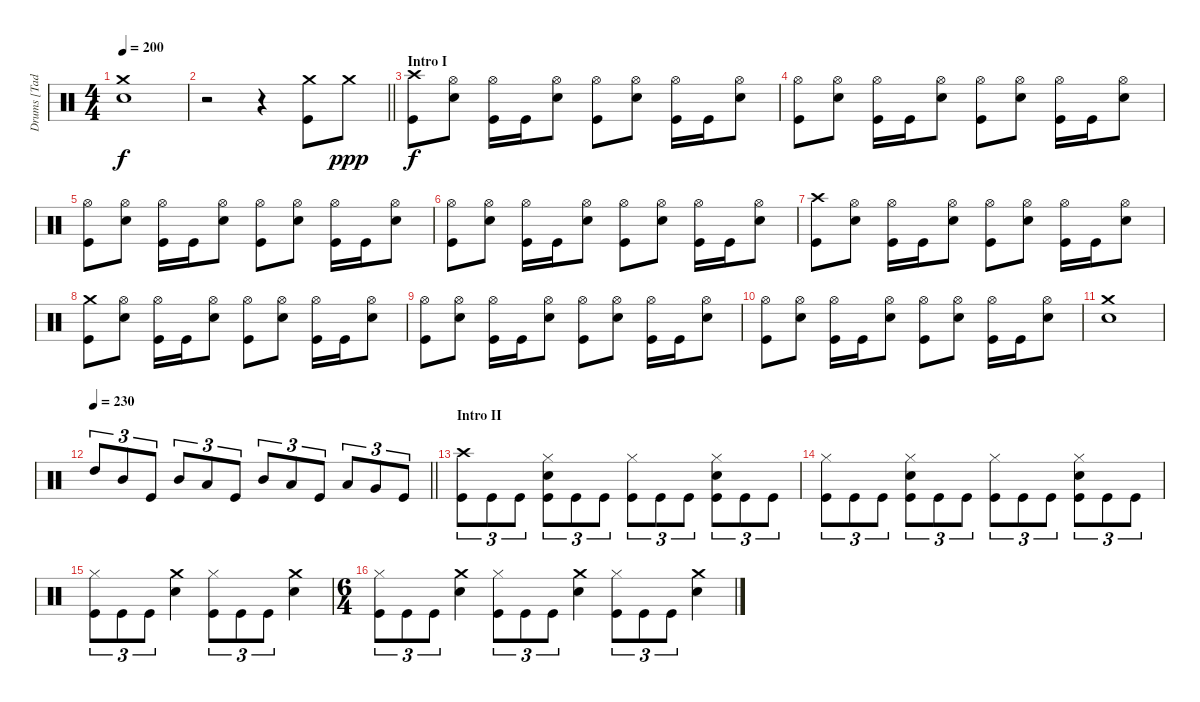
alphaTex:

\track ("Drums [Tad Leger]" "Drums [Tad") {instrument percussion}
\staff {score}
\articulation defaults
\ts (4 4)
\tempo 200
\clef neutral
\ks c
("Crash medium (hit)" "Electric Snare (hit)").1{dy f} |
\barLineRight lightlight
r.2 r.4 ("Crash medium (hit)" "Kick (hit)").8 "Crash medium (hit)".8{dy ppp} |
\section ("" "Intro I")
("Crash high (hit)" "Kick (hit)").8{dy f} ("Hi-Hat (open)" "Electric Snare (hit)").8 ("Hi-Hat (open)" "Kick (hit)").16 "Kick (hit)".16 ("Hi-Hat (open)" "Electric Snare (hit)").8 ("Hi-Hat (open)" "Kick (hit)").8 ("Hi-Hat (open)" "Electric Snare (hit)").8 ("Hi-Hat (open)" "Kick (hit)").16 "Kick (hit)".16 ("Hi-Hat (open)" "Electric Snare (hit)").8 |
("Hi-Hat (open)" "Kick (hit)").8 ("Hi-Hat (open)" "Electric Snare (hit)").8 ("Hi-Hat (open)" "Kick (hit)").16 "Kick (hit)".16 ("Hi-Hat (open)" "Electric Snare (hit)").8 ("Hi-Hat (open)" "Kick (hit)").8 ("Hi-Hat (open)" "Electric Snare (hit)").8 ("Hi-Hat (open)" "Kick (hit)").16 "Kick (hit)".16 ("Hi-Hat (open)" "Electric Snare (hit)").8 |
("Hi-Hat (open)" "Kick (hit)").8 ("Hi-Hat (open)" "Electric Snare (hit)").8 ("Hi-Hat (open)" "Kick (hit)").16 "Kick (hit)".16 ("Hi-Hat (open)" "Electric Snare (hit)").8 ("Hi-Hat (open)" "Kick (hit)").8 ("Hi-Hat (open)" "Electric Snare (hit)").8 ("Hi-Hat (open)" "Kick (hit)").16 "Kick (hit)".16 ("Hi-Hat (open)" "Electric Snare (hit)").8 |
("Hi-Hat (open)" "Kick (hit)").8 ("Hi-Hat (open)" "Electric Snare (hit)").8 ("Hi-Hat (open)" "Kick (hit)").16 "Kick (hit)".16 ("Hi-Hat (open)" "Electric Snare (hit)").8 ("Hi-Hat (open)" "Kick (hit)").8 ("Hi-Hat (open)" "Electric Snare (hit)").8 ("Hi-Hat (open)" "Kick (hit)").16 "Kick (hit)".16 ("Hi-Hat (open)" "Electric Snare (hit)").8 |
("Crash high (hit)" "Kick (hit)").8 ("Hi-Hat (open)" "Electric Snare (hit)").8 ("Hi-Hat (open)" "Kick (hit)").16 "Kick (hit)".16 ("Hi-Hat (open)" "Electric Snare (hit)").8 ("Hi-Hat (open)" "Kick (hit)").8 ("Hi-Hat (open)" "Electric Snare (hit)").8 ("Hi-Hat (open)" "Kick (hit)").16 "Kick (hit)".16 ("Hi-Hat (open)" "Electric Snare (hit)").8 |
("Crash medium (hit)" "Kick (hit)").8 ("Hi-Hat (open)" "Electric Snare (hit)").8 ("Hi-Hat (open)" "Kick (hit)").16 "Kick (hit)".16 ("Hi-Hat (open)" "Electric Snare (hit)").8 ("Hi-Hat (open)" "Kick (hit)").8 ("Hi-Hat (open)" "Electric Snare (hit)").8 ("Hi-Hat (open)" "Kick (hit)").16 "Kick (hit)".16 ("Hi-Hat (open)" "Electric Snare (hit)").8 |
("Hi-Hat (open)" "Kick (hit)").8 ("Hi-Hat (open)" "Electric Snare (hit)").8 ("Hi-Hat (open)" "Kick (hit)").16 "Kick (hit)".16 ("Hi-Hat (open)" "Electric Snare (hit)").8 ("Hi-Hat (open)" "Kick (hit)").8 ("Hi-Hat (open)" "Electric Snare (hit)").8 ("Hi-Hat (open)" "Kick (hit)").16 "Kick (hit)".16 ("Hi-Hat (open)" "Electric Snare (hit)").8 |
("Hi-Hat (open)" "Kick (hit)").8 ("Hi-Hat (open)" "Electric Snare (hit)").8 ("Hi-Hat (open)" "Kick (hit)").16 "Kick (hit)".16 ("Hi-Hat (open)" "Electric Snare (hit)").8 ("Hi-Hat (open)" "Kick (hit)").8 ("Hi-Hat (open)" "Electric Snare (hit)").8 ("Hi-Hat (open)" "Kick (hit)").16 "Kick (hit)".16 ("Hi-Hat (open)" "Electric Snare (hit)").8 |
("Crash medium (hit)" "Electric Snare (hit)").1 |
\tempo 230
\barLineRight lightlight "High Tom (hit)".8{tu (3 2)} "Mid Tom (hit)".8{tu (3 2)} "Kick (hit)".8{tu (3 2)} "Mid Tom (hit)".8{tu (3 2)} "Low Tom (hit)".8{tu (3 2)} "Kick (hit)".8{tu (3 2)} "Mid Tom (hit)".8{tu (3 2)} "Low Tom (hit)".8{tu (3 2)} "Kick (hit)".8{tu (3 2)} "Low Tom (hit)".8{tu (3 2)} "Very Low Tom (hit)".8{tu (3 2)} "Kick (hit)".8{tu (3 2)}
|
\section ("" "Intro II")
("Crash high (hit)" "Kick (hit)").8{tu (3 2)} "Kick (hit)".8{tu (3 2)} "Kick (hit)".8{tu (3 2)} ("Hi-Hat (closed)" "Electric Snare (hit)" "Kick (hit)").8{tu (3 2)} "Kick (hit)".8{tu (3 2)} "Kick (hit)".8{tu (3 2)} ("Hi-Hat (closed)" "Kick (hit)").8{tu (3 2)} "Kick (hit)".8{tu (3 2)} "Kick (hit)".8{tu (3 2)} ("Hi-Hat (closed)" "Electric Snare (hit)" "Kick (hit)").8{tu (3 2)} "Kick (hit)".8{tu (3 2)} "Kick (hit)".8{tu (3 2)} |
("Hi-Hat (closed)" "Kick (hit)").8{tu (3 2)} "Kick (hit)".8{tu (3 2)} "Kick (hit)".8{tu (3 2)} ("Hi-Hat (closed)" "Electric Snare (hit)" "Kick (hit)").8{tu (3 2)} "Kick (hit)".8{tu (3 2)} "Kick (hit)".8{tu (3 2)} ("Hi-Hat (closed)" "Kick (hit)").8{tu (3 2)} "Kick (hit)".8{tu (3 2)} "Kick (hit)".8{tu (3 2)} ("Hi-Hat (closed)" "Electric Snare (hit)" "Kick (hit)").8{tu (3 2)} "Kick (hit)".8{tu (3 2)} "Kick (hit)".8{tu (3 2)} |
("Hi-Hat (closed)" "Kick (hit)").8{tu (3 2)} "Kick (hit)".8{tu (3 2)} "Kick (hit)".8{tu (3 2)} ("Crash medium (hit)" "Electric Snare (hit)").4 ("Hi-Hat (closed)" "Kick (hit)").8{tu (3 2)} "Kick (hit)".8{tu (3 2)} "Kick (hit)".8{tu (3 2)} ("Crash medium (hit)" "Electric Snare (hit)").4 |
\ts (6 4)
("Hi-Hat (closed)" "Kick (hit)").8{tu (3 2)} "Kick (hit)".8{tu (3 2)} "Kick (hit)".8{tu (3 2)} ("Crash medium (hit)" "Electric Snare (hit)").4 ("Hi-Hat (closed)" "Kick (hit)").8{tu (3 2)} "Kick (hit)".8{tu (3 2)} "Kick (hit)".8{tu (3 2)} ("Crash medium (hit)" "Electric Snare (hit)").4 ("Hi-Hat (closed)" "Kick (hit)").8{tu (3 2)} "Kick (hit)".8{tu (3 2)} "Kick (hit)".8{tu (3 2)} ("Crash medium (hit)" "Electric Snare (hit)").4
